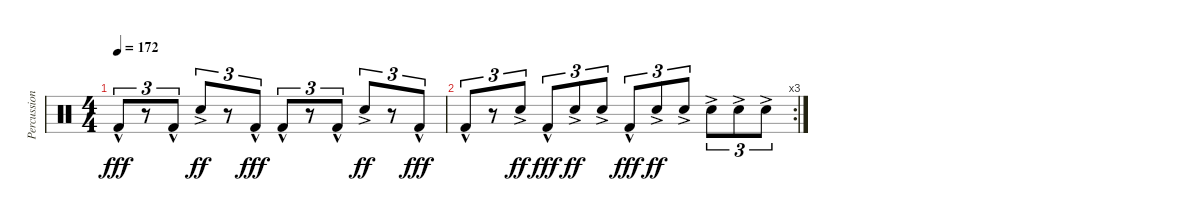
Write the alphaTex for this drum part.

\track ("Percussion" "Percussion") {instrument percussion}
\staff {score}
\articulation defaults
\ts (4 4)
\tempo 172
\clef neutral
\ks c "Kick (hit) 2"{hac}.8{tu (3 2) dy fff}
r.8{tu (3 2)} "Kick (hit) 2"{hac}.8{tu (3 2)} "Snare (hit) 2"{ac}.8{tu (3 2) dy ff} r.8{tu (3 2)} "Kick (hit) 2"{hac}.8{tu (3 2) dy fff} "Kick (hit) 2"{hac}.8{tu (3 2)} r.8{tu (3 2)} "Kick (hit) 2"{hac}.8{tu (3 2)} "Snare (hit) 2"{ac}.8{tu (3 2) dy ff} r.8{tu (3 2)} "Kick (hit) 2"{hac}.8{tu (3 2) dy fff} |
\rc 3 "Kick (hit) 2"{hac}.8{tu (3 2)}
r.8{tu (3 2)} "Snare (hit) 2"{ac}.8{tu (3 2) dy ff} "Kick (hit) 2"{hac}.8{tu (3 2) dy fff} "Snare (hit) 2"{ac}.8{tu (3 2) dy ff} "Snare (hit) 2"{ac}.8{tu (3 2)} "Kick (hit) 2"{hac}.8{tu (3 2) dy fff} "Snare (hit) 2"{ac}.8{tu (3 2) dy ff} "Snare (hit) 2"{ac}.8{tu (3 2)} "Snare (hit) 2"{ac}.8{tu (3 2)} "Snare (hit) 2"{ac}.8{tu (3 2)} "Snare (hit) 2"{ac}.8{tu (3 2)}
